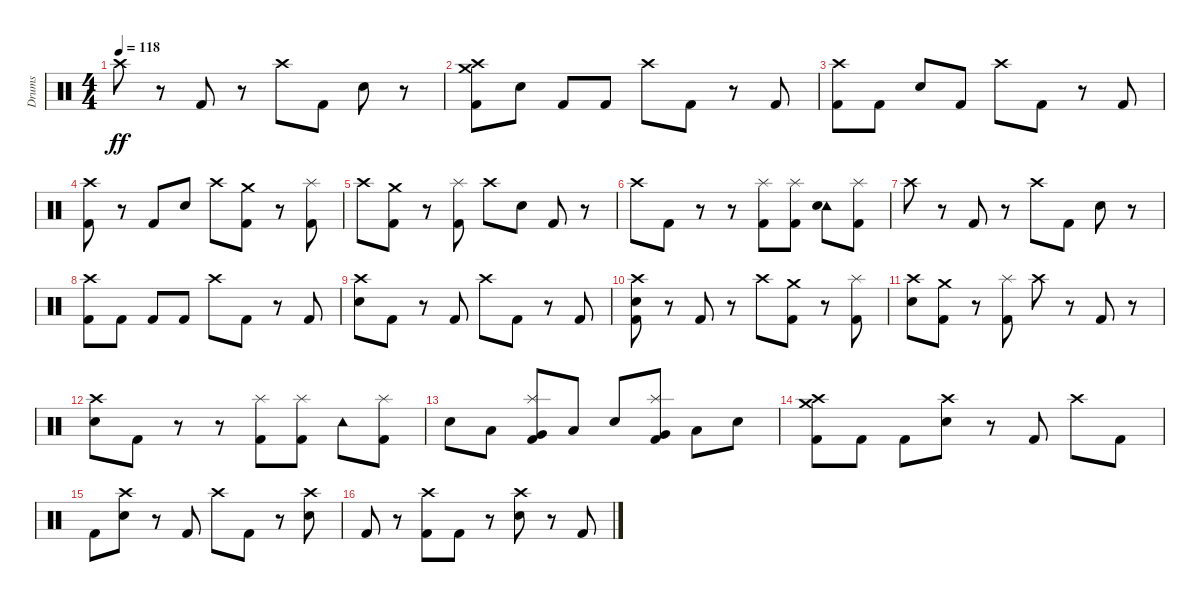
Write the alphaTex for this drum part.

\track ("Drums" "Drums") {instrument percussion}
\staff {score}
\articulation defaults
\ts (4 4)
\tempo 118
\clef neutral
\ks c "Crash high (hit)".8{dy ff}
r.8 "Kick (hit) 2".8 r.8 "Crash high (hit)".8 "Kick (hit) 2".8 "Electric Snare (hit)".8 r.8 |
("Crash medium (hit)" "Crash high (hit)" "Kick (hit) 2").8 "Electric Snare (hit)".8 "Kick (hit) 2".8 "Kick (hit) 2".8 "Crash high (hit)".8 "Kick (hit) 2".8 r.8 "Kick (hit) 2".8 |
("Crash high (hit)" "Kick (hit) 2").8 "Kick (hit) 2".8 "Electric Snare (hit)".8 "Kick (hit) 2".8 "Crash high (hit)".8 "Kick (hit) 2".8 r.8 "Kick (hit) 2".8 |
("Crash high (hit)" "Kick (hit) 2").8 r.8 "Kick (hit) 2".8 "Electric Snare (hit)".8 "Crash high (hit)".8 ("Crash medium (hit)" "Kick (hit) 2").8 r.8 ("Splash (hit)" "Kick (hit) 2").8 |
"Crash high (hit)".8 ("Crash medium (hit)" "Kick (hit) 2").8 r.8 ("Splash (hit)" "Kick (hit) 2").8 "Crash high (hit)".8 "Electric Snare (hit)".8 "Kick (hit) 2".8 r.8 |
"Crash high (hit)".8 "Kick (hit) 2".8 r.8 r.8 ("Splash (hit)" "Kick (hit) 2").8 ("Splash (hit)" "Kick (hit) 2").8 ("Tambourine (hit)" "Electric Snare (hit)").8 ("Splash (hit)" "Kick (hit) 2").8 |
"Crash high (hit)".8 r.8 "Kick (hit) 2".8 r.8 "Crash high (hit)".8 "Kick (hit) 2".8 "Electric Snare (hit)".8 r.8 |
\section ("" "")
("Crash high (hit)" "Kick (hit) 2").8 "Kick (hit) 2".8 "Kick (hit) 2".8 "Kick (hit) 2".8 "Crash high (hit)".8 "Kick (hit) 2".8 r.8 "Kick (hit) 2".8 |
("Crash high (hit)" "Electric Snare (hit)").8 "Kick (hit) 2".8 r.8 "Kick (hit) 2".8 "Crash high (hit)".8 "Kick (hit) 2".8 r.8 "Kick (hit) 2".8 |
("Crash high (hit)" "Electric Snare (hit)" "Kick (hit) 2").8 r.8 "Kick (hit) 2".8 r.8 "Crash high (hit)".8 ("Crash medium (hit)" "Kick (hit) 2").8 r.8 ("Splash (hit)" "Kick (hit) 2").8 |
("Crash high (hit)" "Electric Snare (hit)").8 ("Crash medium (hit)" "Kick (hit) 2").8 r.8 ("Splash (hit)" "Kick (hit) 2").8 "Crash high (hit)".8 r.8 "Kick (hit) 2".8 r.8 |
("Crash high (hit)" "Electric Snare (hit)").8 "Kick (hit) 2".8 r.8 r.8 ("Splash (hit)" "Kick (hit) 2").8 ("Splash (hit)" "Kick (hit) 2").8 "Tambourine (hit)".8 ("Splash (hit)" "Kick (hit) 2").8 |
"Electric Snare (hit)".8 "Low Tom (hit)".8 ("Splash (hit)" "Very Low Tom (hit)" "Kick (hit) 2").8 "Low Tom (hit)".8 "Electric Snare (hit)".8 ("Splash (hit)" "Very Low Tom (hit)" "Kick (hit) 2").8 "Low Tom (hit)".8 "Electric Snare (hit)".8 |
("Crash medium (hit)" "Crash high (hit)" "Kick (hit) 2").8 "Kick (hit) 2".8 "Kick (hit) 2".8 ("Crash high (hit)" "Electric Snare (hit)").8 r.8 "Kick (hit) 2".8 "Crash high (hit)".8 "Kick (hit) 2".8 |
"Kick (hit) 2".8 ("Crash high (hit)" "Electric Snare (hit)").8 r.8 "Kick (hit) 2".8 "Crash high (hit)".8 "Kick (hit) 2".8 r.8 ("Crash high (hit)" "Electric Snare (hit)").8 |
"Kick (hit) 2".8 r.8 ("Crash high (hit)" "Kick (hit) 2").8 "Kick (hit) 2".8 r.8 ("Crash high (hit)" "Electric Snare (hit)").8 r.8 "Kick (hit) 2".8
